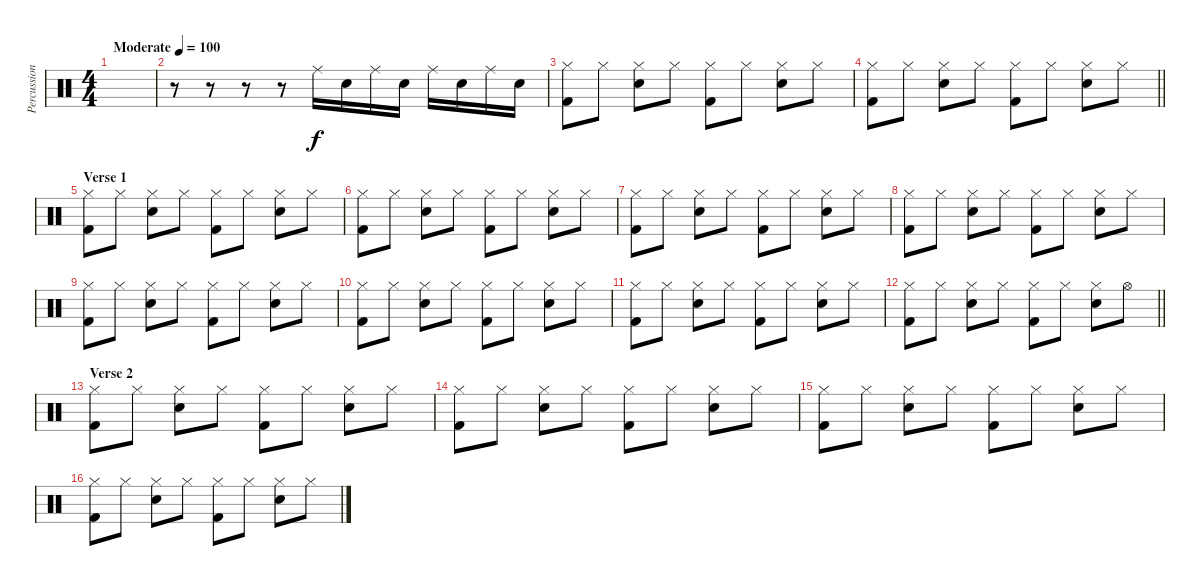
\track ("Percussion" "Percussion") {instrument percussion}
\staff {score}
\articulation defaults
\ts (4 4)
\tempo (100 "Moderate")
\clef neutral
\ks c
|
r.8 r.8 r.8 r.8 "Ride (middle)".16 "Electric Snare (hit)".16 "Ride (middle)".16 "Electric Snare (hit)".16 "Ride (middle)".16 "Electric Snare (hit)".16 "Ride (middle)".16 "Electric Snare (hit)".16 |
("Hi-Hat (closed)" "Kick (hit) 2").8 "Hi-Hat (closed)".8 ("Hi-Hat (closed)" "Electric Snare (hit)").8 "Hi-Hat (closed)".8 ("Hi-Hat (closed)" "Kick (hit) 2").8 "Hi-Hat (closed)".8 ("Hi-Hat (closed)" "Electric Snare (hit)").8 "Hi-Hat (closed)".8 |
\barLineRight lightlight
("Hi-Hat (closed)" "Kick (hit) 2").8 "Hi-Hat (closed)".8 ("Hi-Hat (closed)" "Electric Snare (hit)").8 "Hi-Hat (closed)".8 ("Hi-Hat (closed)" "Kick (hit) 2").8 "Hi-Hat (closed)".8 ("Hi-Hat (closed)" "Electric Snare (hit)").8 "Hi-Hat (closed)".8 |
\section ("" "Verse 1")
("Hi-Hat (closed)" "Kick (hit) 2").8 "Hi-Hat (closed)".8 ("Hi-Hat (closed)" "Electric Snare (hit)").8 "Hi-Hat (closed)".8 ("Hi-Hat (closed)" "Kick (hit) 2").8 "Hi-Hat (closed)".8 ("Hi-Hat (closed)" "Electric Snare (hit)").8 "Hi-Hat (closed)".8 |
("Hi-Hat (closed)" "Kick (hit) 2").8 "Hi-Hat (closed)".8 ("Hi-Hat (closed)" "Electric Snare (hit)").8 "Hi-Hat (closed)".8 ("Hi-Hat (closed)" "Kick (hit) 2").8 "Hi-Hat (closed)".8 ("Hi-Hat (closed)" "Electric Snare (hit)").8 "Hi-Hat (closed)".8 |
("Hi-Hat (closed)" "Kick (hit) 2").8 "Hi-Hat (closed)".8 ("Hi-Hat (closed)" "Electric Snare (hit)").8 "Hi-Hat (closed)".8 ("Hi-Hat (closed)" "Kick (hit) 2").8 "Hi-Hat (closed)".8 ("Hi-Hat (closed)" "Electric Snare (hit)").8 "Hi-Hat (closed)".8 |
("Hi-Hat (closed)" "Kick (hit) 2").8 "Hi-Hat (closed)".8 ("Hi-Hat (closed)" "Electric Snare (hit)").8 "Hi-Hat (closed)".8 ("Hi-Hat (closed)" "Kick (hit) 2").8 "Hi-Hat (closed)".8 ("Hi-Hat (closed)" "Electric Snare (hit)").8 "Hi-Hat (closed)".8 |
("Hi-Hat (closed)" "Kick (hit) 2").8 "Hi-Hat (closed)".8 ("Hi-Hat (closed)" "Electric Snare (hit)").8 "Hi-Hat (closed)".8 ("Hi-Hat (closed)" "Kick (hit) 2").8 "Hi-Hat (closed)".8 ("Hi-Hat (closed)" "Electric Snare (hit)").8 "Hi-Hat (closed)".8 |
("Hi-Hat (closed)" "Kick (hit) 2").8 "Hi-Hat (closed)".8 ("Hi-Hat (closed)" "Electric Snare (hit)").8 "Hi-Hat (closed)".8 ("Hi-Hat (closed)" "Kick (hit) 2").8 "Hi-Hat (closed)".8 ("Hi-Hat (closed)" "Electric Snare (hit)").8 "Hi-Hat (closed)".8 |
("Hi-Hat (closed)" "Kick (hit) 2").8 "Hi-Hat (closed)".8 ("Hi-Hat (closed)" "Electric Snare (hit)").8 "Hi-Hat (closed)".8 ("Hi-Hat (closed)" "Kick (hit) 2").8 "Hi-Hat (closed)".8 ("Hi-Hat (closed)" "Electric Snare (hit)").8 "Hi-Hat (closed)".8 |
\barLineRight lightlight
("Hi-Hat (closed)" "Kick (hit) 2").8 "Hi-Hat (closed)".8 ("Hi-Hat (closed)" "Electric Snare (hit)").8 "Hi-Hat (closed)".8 ("Hi-Hat (closed)" "Kick (hit) 2").8 "Hi-Hat (closed)".8 ("Hi-Hat (closed)" "Electric Snare (hit)").8 "Hi-Hat (open)".8 |
\section ("" "Verse 2")
("Hi-Hat (closed)" "Kick (hit) 2").8 "Hi-Hat (closed)".8 ("Hi-Hat (closed)" "Electric Snare (hit)").8 "Hi-Hat (closed)".8 ("Hi-Hat (closed)" "Kick (hit) 2").8 "Hi-Hat (closed)".8 ("Hi-Hat (closed)" "Electric Snare (hit)").8 "Hi-Hat (closed)".8 |
("Hi-Hat (closed)" "Kick (hit) 2").8 "Hi-Hat (closed)".8 ("Hi-Hat (closed)" "Electric Snare (hit)").8 "Hi-Hat (closed)".8 ("Hi-Hat (closed)" "Kick (hit) 2").8 "Hi-Hat (closed)".8 ("Hi-Hat (closed)" "Electric Snare (hit)").8 "Hi-Hat (closed)".8 |
("Hi-Hat (closed)" "Kick (hit) 2").8 "Hi-Hat (closed)".8 ("Hi-Hat (closed)" "Electric Snare (hit)").8 "Hi-Hat (closed)".8 ("Hi-Hat (closed)" "Kick (hit) 2").8 "Hi-Hat (closed)".8 ("Hi-Hat (closed)" "Electric Snare (hit)").8 "Hi-Hat (closed)".8 |
("Hi-Hat (closed)" "Kick (hit) 2").8 "Hi-Hat (closed)".8 ("Hi-Hat (closed)" "Electric Snare (hit)").8 "Hi-Hat (closed)".8 ("Hi-Hat (closed)" "Kick (hit) 2").8 "Hi-Hat (closed)".8 ("Hi-Hat (closed)" "Electric Snare (hit)").8 "Hi-Hat (closed)".8
